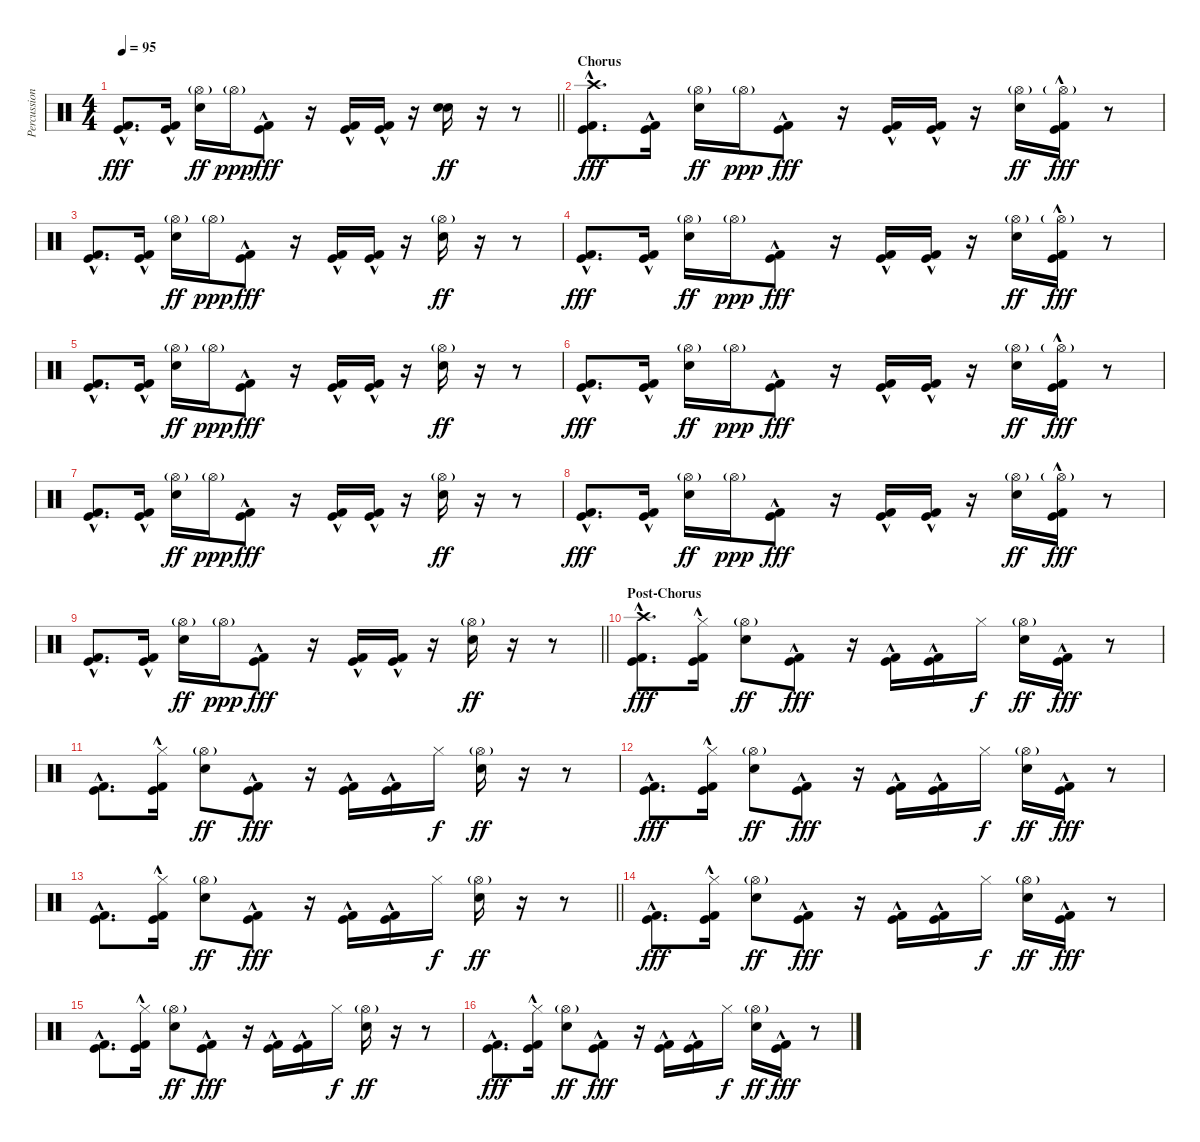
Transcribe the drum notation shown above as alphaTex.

\track ("Percussion" "Percussion") {instrument percussion}
\staff {score}
\articulation defaults
\ts (4 4)
\tempo 95
\clef neutral
\barLineRight lightlight
\ks c
("Kick (hit) 2"{hac} "Kick (hit)"{hac}).8{d dy fff} ("Kick (hit) 2"{hac} "Kick (hit)"{hac}).16 ("Hi-Hat (open)"{g} "Electric Snare (hit)").16{dy ff} "Hi-Hat (open)"{g}.16{dy ppp} ("Kick (hit) 2"{hac} "Kick (hit)"{hac}).8{dy fff} r.16 ("Kick (hit) 2"{hac} "Kick (hit)"{hac}).16 ("Kick (hit) 2"{hac} "Kick (hit)"{hac}).16 r.16 ("Snare (hit) 2" "Electric Snare (hit)").16{dy ff} r.16 r.8 |
\section ("" "Chorus")
("Crash high (hit)" "Kick (hit) 2"{hac} "Kick (hit)"{hac}).8{d dy fff} ("Kick (hit) 2"{hac} "Kick (hit)"{hac}).16 ("Hi-Hat (open)"{g} "Electric Snare (hit)").16{dy ff} "Hi-Hat (open)"{g}.16{dy ppp} ("Kick (hit) 2"{hac} "Kick (hit)"{hac}).8{dy fff} r.16 ("Kick (hit) 2"{hac} "Kick (hit)"{hac}).16 ("Kick (hit) 2"{hac} "Kick (hit)"{hac}).16 r.16 ("Hi-Hat (open)"{g} "Electric Snare (hit)").16{dy ff} ("Hi-Hat (open)"{g} "Kick (hit) 2"{hac} "Kick (hit)"{hac}).16{dy fff} r.8 |
("Kick (hit) 2"{hac} "Kick (hit)"{hac}).8{d} ("Kick (hit) 2"{hac} "Kick (hit)"{hac}).16 ("Hi-Hat (open)"{g} "Electric Snare (hit)").16{dy ff} "Hi-Hat (open)"{g}.16{dy ppp} ("Kick (hit) 2"{hac} "Kick (hit)"{hac}).8{dy fff} r.16 ("Kick (hit) 2"{hac} "Kick (hit)"{hac}).16 ("Kick (hit) 2"{hac} "Kick (hit)"{hac}).16 r.16 ("Hi-Hat (open)"{g} "Electric Snare (hit)").16{dy ff} r.16 r.8 |
("Kick (hit) 2"{hac} "Kick (hit)"{hac}).8{d dy fff} ("Kick (hit) 2"{hac} "Kick (hit)"{hac}).16 ("Hi-Hat (open)"{g} "Electric Snare (hit)").16{dy ff} "Hi-Hat (open)"{g}.16{dy ppp} ("Kick (hit) 2"{hac} "Kick (hit)"{hac}).8{dy fff} r.16 ("Kick (hit) 2"{hac} "Kick (hit)"{hac}).16 ("Kick (hit) 2"{hac} "Kick (hit)"{hac}).16 r.16 ("Hi-Hat (open)"{g} "Electric Snare (hit)").16{dy ff} ("Hi-Hat (open)"{g} "Kick (hit) 2"{hac} "Kick (hit)"{hac}).16{dy fff} r.8 |
("Kick (hit) 2"{hac} "Kick (hit)"{hac}).8{d} ("Kick (hit) 2"{hac} "Kick (hit)"{hac}).16 ("Hi-Hat (open)"{g} "Electric Snare (hit)").16{dy ff} "Hi-Hat (open)"{g}.16{dy ppp} ("Kick (hit) 2"{hac} "Kick (hit)"{hac}).8{dy fff} r.16 ("Kick (hit) 2"{hac} "Kick (hit)"{hac}).16 ("Kick (hit) 2"{hac} "Kick (hit)"{hac}).16 r.16 ("Hi-Hat (open)"{g} "Electric Snare (hit)").16{dy ff} r.16 r.8 |
("Kick (hit) 2"{hac} "Kick (hit)"{hac}).8{d dy fff} ("Kick (hit) 2"{hac} "Kick (hit)"{hac}).16 ("Hi-Hat (open)"{g} "Electric Snare (hit)").16{dy ff} "Hi-Hat (open)"{g}.16{dy ppp} ("Kick (hit) 2"{hac} "Kick (hit)"{hac}).8{dy fff} r.16 ("Kick (hit) 2"{hac} "Kick (hit)"{hac}).16 ("Kick (hit) 2"{hac} "Kick (hit)"{hac}).16 r.16 ("Hi-Hat (open)"{g} "Electric Snare (hit)").16{dy ff} ("Hi-Hat (open)"{g} "Kick (hit) 2"{hac} "Kick (hit)"{hac}).16{dy fff} r.8 |
("Kick (hit) 2"{hac} "Kick (hit)"{hac}).8{d} ("Kick (hit) 2"{hac} "Kick (hit)"{hac}).16 ("Hi-Hat (open)"{g} "Electric Snare (hit)").16{dy ff} "Hi-Hat (open)"{g}.16{dy ppp} ("Kick (hit) 2"{hac} "Kick (hit)"{hac}).8{dy fff} r.16 ("Kick (hit) 2"{hac} "Kick (hit)"{hac}).16 ("Kick (hit) 2"{hac} "Kick (hit)"{hac}).16 r.16 ("Hi-Hat (open)"{g} "Electric Snare (hit)").16{dy ff} r.16 r.8 |
("Kick (hit) 2"{hac} "Kick (hit)"{hac}).8{d dy fff} ("Kick (hit) 2"{hac} "Kick (hit)"{hac}).16 ("Hi-Hat (open)"{g} "Electric Snare (hit)").16{dy ff} "Hi-Hat (open)"{g}.16{dy ppp} ("Kick (hit) 2"{hac} "Kick (hit)"{hac}).8{dy fff} r.16 ("Kick (hit) 2"{hac} "Kick (hit)"{hac}).16 ("Kick (hit) 2"{hac} "Kick (hit)"{hac}).16 r.16 ("Hi-Hat (open)"{g} "Electric Snare (hit)").16{dy ff} ("Hi-Hat (open)"{g} "Kick (hit) 2"{hac} "Kick (hit)"{hac}).16{dy fff} r.8 |
\barLineRight lightlight
("Kick (hit) 2"{hac} "Kick (hit)"{hac}).8{d} ("Kick (hit) 2"{hac} "Kick (hit)"{hac}).16 ("Hi-Hat (open)"{g} "Electric Snare (hit)").16{dy ff} "Hi-Hat (open)"{g}.16{dy ppp} ("Kick (hit) 2"{hac} "Kick (hit)"{hac}).8{dy fff} r.16 ("Kick (hit) 2"{hac} "Kick (hit)"{hac}).16 ("Kick (hit) 2"{hac} "Kick (hit)"{hac}).16 r.16 ("Hi-Hat (open)"{g} "Electric Snare (hit)").16{dy ff} r.16 r.8 |
\section ("" "Post-Chorus")
("Crash high (hit)" "Kick (hit) 2"{hac} "Kick (hit)"{hac}).8{d dy fff} ("Hi-Hat (closed)" "Kick (hit) 2"{hac} "Kick (hit)"{hac}).16 ("Hi-Hat (open)"{g} "Electric Snare (hit)").8{dy ff} ("Kick (hit) 2"{hac} "Kick (hit)"{hac}).8{dy fff} r.16 ("Kick (hit) 2"{hac} "Kick (hit)"{hac}).16 ("Kick (hit) 2"{hac} "Kick (hit)"{hac}).16 "Hi-Hat (closed)".16{dy f} ("Hi-Hat (open)"{g} "Electric Snare (hit)").16{dy ff} ("Kick (hit) 2"{hac} "Kick (hit)"{hac}).16{dy fff} r.8 |
("Kick (hit) 2"{hac} "Kick (hit)"{hac}).8{d} ("Hi-Hat (closed)" "Kick (hit) 2"{hac} "Kick (hit)"{hac}).16 ("Hi-Hat (open)"{g} "Electric Snare (hit)").8{dy ff} ("Kick (hit) 2"{hac} "Kick (hit)"{hac}).8{dy fff} r.16 ("Kick (hit) 2"{hac} "Kick (hit)"{hac}).16 ("Kick (hit) 2"{hac} "Kick (hit)"{hac}).16 "Hi-Hat (closed)".16{dy f} ("Hi-Hat (open)"{g} "Electric Snare (hit)").16{dy ff} r.16 r.8 |
("Kick (hit) 2"{hac} "Kick (hit)"{hac}).8{d dy fff} ("Hi-Hat (closed)" "Kick (hit) 2"{hac} "Kick (hit)"{hac}).16 ("Hi-Hat (open)"{g} "Electric Snare (hit)").8{dy ff} ("Kick (hit) 2"{hac} "Kick (hit)"{hac}).8{dy fff} r.16 ("Kick (hit) 2"{hac} "Kick (hit)"{hac}).16 ("Kick (hit) 2"{hac} "Kick (hit)"{hac}).16 "Hi-Hat (closed)".16{dy f} ("Hi-Hat (open)"{g} "Electric Snare (hit)").16{dy ff} ("Kick (hit) 2"{hac} "Kick (hit)"{hac}).16{dy fff} r.8 |
\barLineRight lightlight
("Kick (hit) 2"{hac} "Kick (hit)"{hac}).8{d} ("Hi-Hat (closed)" "Kick (hit) 2"{hac} "Kick (hit)"{hac}).16 ("Hi-Hat (open)"{g} "Electric Snare (hit)").8{dy ff} ("Kick (hit) 2"{hac} "Kick (hit)"{hac}).8{dy fff} r.16 ("Kick (hit) 2"{hac} "Kick (hit)"{hac}).16 ("Kick (hit) 2"{hac} "Kick (hit)"{hac}).16 "Hi-Hat (closed)".16{dy f} ("Hi-Hat (open)"{g} "Electric Snare (hit)").16{dy ff} r.16 r.8 |
("Kick (hit) 2"{hac} "Kick (hit)"{hac}).8{d dy fff} ("Hi-Hat (closed)" "Kick (hit) 2"{hac} "Kick (hit)"{hac}).16 ("Hi-Hat (open)"{g} "Electric Snare (hit)").8{dy ff} ("Kick (hit) 2"{hac} "Kick (hit)"{hac}).8{dy fff} r.16 ("Kick (hit) 2"{hac} "Kick (hit)"{hac}).16 ("Kick (hit) 2"{hac} "Kick (hit)"{hac}).16 "Hi-Hat (closed)".16{dy f} ("Hi-Hat (open)"{g} "Electric Snare (hit)").16{dy ff} ("Kick (hit) 2"{hac} "Kick (hit)"{hac}).16{dy fff} r.8 |
("Kick (hit) 2"{hac} "Kick (hit)"{hac}).8{d} ("Hi-Hat (closed)" "Kick (hit) 2"{hac} "Kick (hit)"{hac}).16 ("Hi-Hat (open)"{g} "Electric Snare (hit)").8{dy ff} ("Kick (hit) 2"{hac} "Kick (hit)"{hac}).8{dy fff} r.16 ("Kick (hit) 2"{hac} "Kick (hit)"{hac}).16 ("Kick (hit) 2"{hac} "Kick (hit)"{hac}).16 "Hi-Hat (closed)".16{dy f} ("Hi-Hat (open)"{g} "Electric Snare (hit)").16{dy ff} r.16 r.8 |
("Kick (hit) 2"{hac} "Kick (hit)"{hac}).8{d dy fff} ("Hi-Hat (closed)" "Kick (hit) 2"{hac} "Kick (hit)"{hac}).16 ("Hi-Hat (open)"{g} "Electric Snare (hit)").8{dy ff} ("Kick (hit) 2"{hac} "Kick (hit)"{hac}).8{dy fff} r.16 ("Kick (hit) 2"{hac} "Kick (hit)"{hac}).16 ("Kick (hit) 2"{hac} "Kick (hit)"{hac}).16 "Hi-Hat (closed)".16{dy f} ("Hi-Hat (open)"{g} "Electric Snare (hit)").16{dy ff} ("Kick (hit) 2"{hac} "Kick (hit)"{hac}).16{dy fff} r.8
